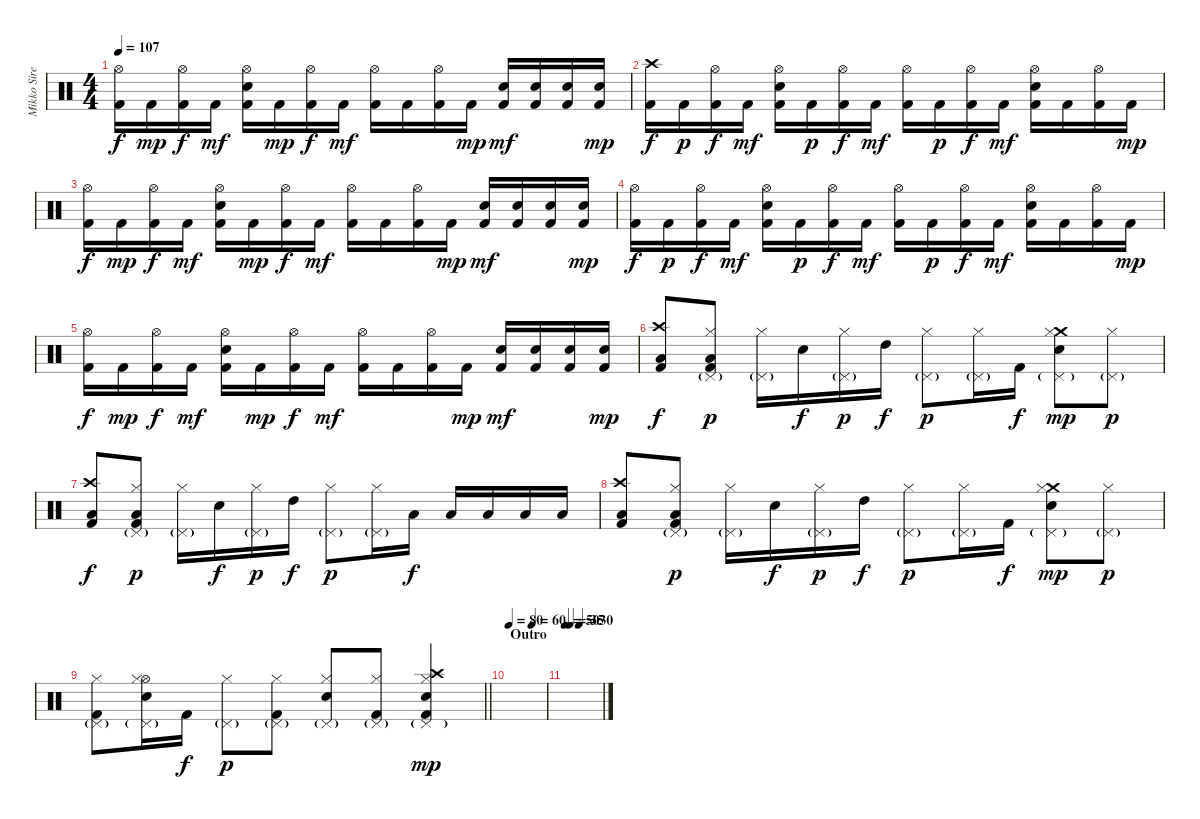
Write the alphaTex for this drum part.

\track ("Mikko Siren" "Mikko Sire") {instrument percussion}
\staff {score}
\articulation defaults
\ts (4 4)
\tempo 107
\clef neutral
\ks c
("Kick (hit) 2" "Hi-Hat (open)").16{dy f} "Kick (hit) 2".16{dy mp} ("Kick (hit) 2" "Hi-Hat (open)").16{dy f} "Kick (hit) 2".16{dy mf} ("Kick (hit) 2" "Electric Snare (hit)" "Hi-Hat (open)").16 "Kick (hit) 2".16{dy mp} ("Kick (hit) 2" "Hi-Hat (open)").16{dy f} "Kick (hit) 2".16{dy mf} ("Kick (hit) 2" "Hi-Hat (open)").16 "Kick (hit) 2".16 ("Kick (hit) 2" "Hi-Hat (open)").16 "Kick (hit) 2".16{dy mp} ("Kick (hit) 2" "Electric Snare (hit)").16{dy mf} ("Kick (hit) 2" "Electric Snare (hit)").16 ("Kick (hit) 2" "Electric Snare (hit)").16 ("Kick (hit) 2" "Electric Snare (hit)").16{dy mp} |
("Kick (hit) 2" "Crash high (hit)").16{dy f} "Kick (hit) 2".16{dy p} ("Kick (hit) 2" "Hi-Hat (open)").16{dy f} "Kick (hit) 2".16{dy mf} ("Kick (hit) 2" "Electric Snare (hit)" "Hi-Hat (open)").16 "Kick (hit) 2".16{dy p} ("Kick (hit) 2" "Hi-Hat (open)").16{dy f} "Kick (hit) 2".16{dy mf} ("Kick (hit) 2" "Hi-Hat (open)").16 "Kick (hit) 2".16{dy p} ("Kick (hit) 2" "Hi-Hat (open)").16{dy f} "Kick (hit) 2".16{dy mf} ("Kick (hit) 2" "Electric Snare (hit)" "Hi-Hat (open)").16 "Kick (hit) 2".16 ("Kick (hit) 2" "Hi-Hat (open)").16 "Kick (hit) 2".16{dy mp} |
("Kick (hit) 2" "Hi-Hat (open)").16{dy f} "Kick (hit) 2".16{dy mp} ("Kick (hit) 2" "Hi-Hat (open)").16{dy f} "Kick (hit) 2".16{dy mf} ("Kick (hit) 2" "Electric Snare (hit)" "Hi-Hat (open)").16 "Kick (hit) 2".16{dy mp} ("Kick (hit) 2" "Hi-Hat (open)").16{dy f} "Kick (hit) 2".16{dy mf} ("Kick (hit) 2" "Hi-Hat (open)").16 "Kick (hit) 2".16 ("Kick (hit) 2" "Hi-Hat (open)").16 "Kick (hit) 2".16{dy mp} ("Kick (hit) 2" "Electric Snare (hit)").16{dy mf} ("Kick (hit) 2" "Electric Snare (hit)").16 ("Kick (hit) 2" "Electric Snare (hit)").16 ("Kick (hit) 2" "Electric Snare (hit)").16{dy mp} |
("Kick (hit) 2" "Hi-Hat (open)").16{dy f} "Kick (hit) 2".16{dy p} ("Kick (hit) 2" "Hi-Hat (open)").16{dy f} "Kick (hit) 2".16{dy mf} ("Kick (hit) 2" "Electric Snare (hit)" "Hi-Hat (open)").16 "Kick (hit) 2".16{dy p} ("Kick (hit) 2" "Hi-Hat (open)").16{dy f} "Kick (hit) 2".16{dy mf} ("Kick (hit) 2" "Hi-Hat (open)").16 "Kick (hit) 2".16{dy p} ("Kick (hit) 2" "Hi-Hat (open)").16{dy f} "Kick (hit) 2".16{dy mf} ("Kick (hit) 2" "Electric Snare (hit)" "Hi-Hat (open)").16 "Kick (hit) 2".16 ("Kick (hit) 2" "Hi-Hat (open)").16 "Kick (hit) 2".16{dy mp} |
("Kick (hit) 2" "Hi-Hat (open)").16{dy f} "Kick (hit) 2".16{dy mp} ("Kick (hit) 2" "Hi-Hat (open)").16{dy f} "Kick (hit) 2".16{dy mf} ("Kick (hit) 2" "Electric Snare (hit)" "Hi-Hat (open)").16 "Kick (hit) 2".16{dy mp} ("Kick (hit) 2" "Hi-Hat (open)").16{dy f} "Kick (hit) 2".16{dy mf} ("Kick (hit) 2" "Hi-Hat (open)").16 "Kick (hit) 2".16 ("Kick (hit) 2" "Hi-Hat (open)").16 "Kick (hit) 2".16{dy mp} ("Kick (hit) 2" "Electric Snare (hit)").16{dy mf} ("Kick (hit) 2" "Electric Snare (hit)").16 ("Kick (hit) 2" "Electric Snare (hit)").16 ("Kick (hit) 2" "Electric Snare (hit)").16{dy mp} |
("Crash high (hit)" "Kick (hit) 2" "Low Tom (hit)").8{dy f} ("Low Floor Tom (hit)" "Kick (hit) 2" "Hi-Hat (closed)" "Pedal Hi-Hat (hit)"{g}).8{dy p} ("Hi-Hat (closed)" "Pedal Hi-Hat (hit)"{g}).16 "Electric Snare (hit)".16{dy f} ("Hi-Hat (closed)" "Pedal Hi-Hat (hit)"{g}).16{dy p} "High Tom (hit)".16{dy f} ("Hi-Hat (closed)" "Pedal Hi-Hat (hit)"{g}).8{dy p} ("Hi-Hat (closed)" "Pedal Hi-Hat (hit)"{g}).16 "Kick (hit) 2".16{dy f} ("Crash medium (hit)" "Electric Snare (hit)" "Hi-Hat (closed)" "Pedal Hi-Hat (hit)"{g}).8{dy mp} ("Hi-Hat (closed)" "Pedal Hi-Hat (hit)"{g}).8{dy p} |
("Crash high (hit)" "Kick (hit) 2" "Low Tom (hit)").8{dy f} ("Low Floor Tom (hit)" "Kick (hit) 2" "Hi-Hat (closed)" "Pedal Hi-Hat (hit)"{g}).8{dy p} ("Hi-Hat (closed)" "Pedal Hi-Hat (hit)"{g}).16 "Electric Snare (hit)".16{dy f} ("Hi-Hat (closed)" "Pedal Hi-Hat (hit)"{g}).16{dy p} "High Tom (hit)".16{dy f} ("Hi-Hat (closed)" "Pedal Hi-Hat (hit)"{g}).8{dy p} ("Hi-Hat (closed)" "Pedal Hi-Hat (hit)"{g}).16 "Low Floor Tom (hit)".16{dy f} "Low Tom (hit)".16 "Low Floor Tom (hit)".16 "Low Tom (hit)".16 "Low Floor Tom (hit)".16 |
("Crash high (hit)" "Kick (hit) 2" "Low Tom (hit)").8 ("Low Floor Tom (hit)" "Kick (hit) 2" "Hi-Hat (closed)" "Pedal Hi-Hat (hit)"{g}).8{dy p} ("Hi-Hat (closed)" "Pedal Hi-Hat (hit)"{g}).16 "Electric Snare (hit)".16{dy f} ("Hi-Hat (closed)" "Pedal Hi-Hat (hit)"{g}).16{dy p} "High Tom (hit)".16{dy f} ("Hi-Hat (closed)" "Pedal Hi-Hat (hit)"{g}).8{dy p} ("Hi-Hat (closed)" "Pedal Hi-Hat (hit)"{g}).16 "Kick (hit) 2".16{dy f} ("Crash medium (hit)" "Electric Snare (hit)" "Hi-Hat (closed)" "Pedal Hi-Hat (hit)"{g}).8{dy mp} ("Hi-Hat (closed)" "Pedal Hi-Hat (hit)"{g}).8{dy p} |
\barLineRight lightlight
("Kick (hit) 2" "Hi-Hat (closed)" "Pedal Hi-Hat (hit)"{g}).8 ("Electric Snare (hit)" "Hi-Hat (open)" "Hi-Hat (closed)" "Pedal Hi-Hat (hit)"{g}).16 "Kick (hit) 2".16{dy f} ("Hi-Hat (closed)" "Pedal Hi-Hat (hit)"{g}).8{dy p} ("Kick (hit) 2" "Hi-Hat (closed)" "Pedal Hi-Hat (hit)"{g}).8 ("Electric Snare (hit)" "Hi-Hat (closed)" "Pedal Hi-Hat (hit)"{g}).8 ("Kick (hit) 2" "Hi-Hat (closed)" "Pedal Hi-Hat (hit)"{g}).8 ("Electric Snare (hit)" "Crash high (hit)" "Kick (hit) 2" "Hi-Hat (closed)" "Pedal Hi-Hat (hit)"{g}).4{dy mp} |
\section ("" "Outro")
\tempo 80
\tempo (60 0.625)
|
\tempo 50
\tempo (35 0.125)
\tempo (30 0.375)
